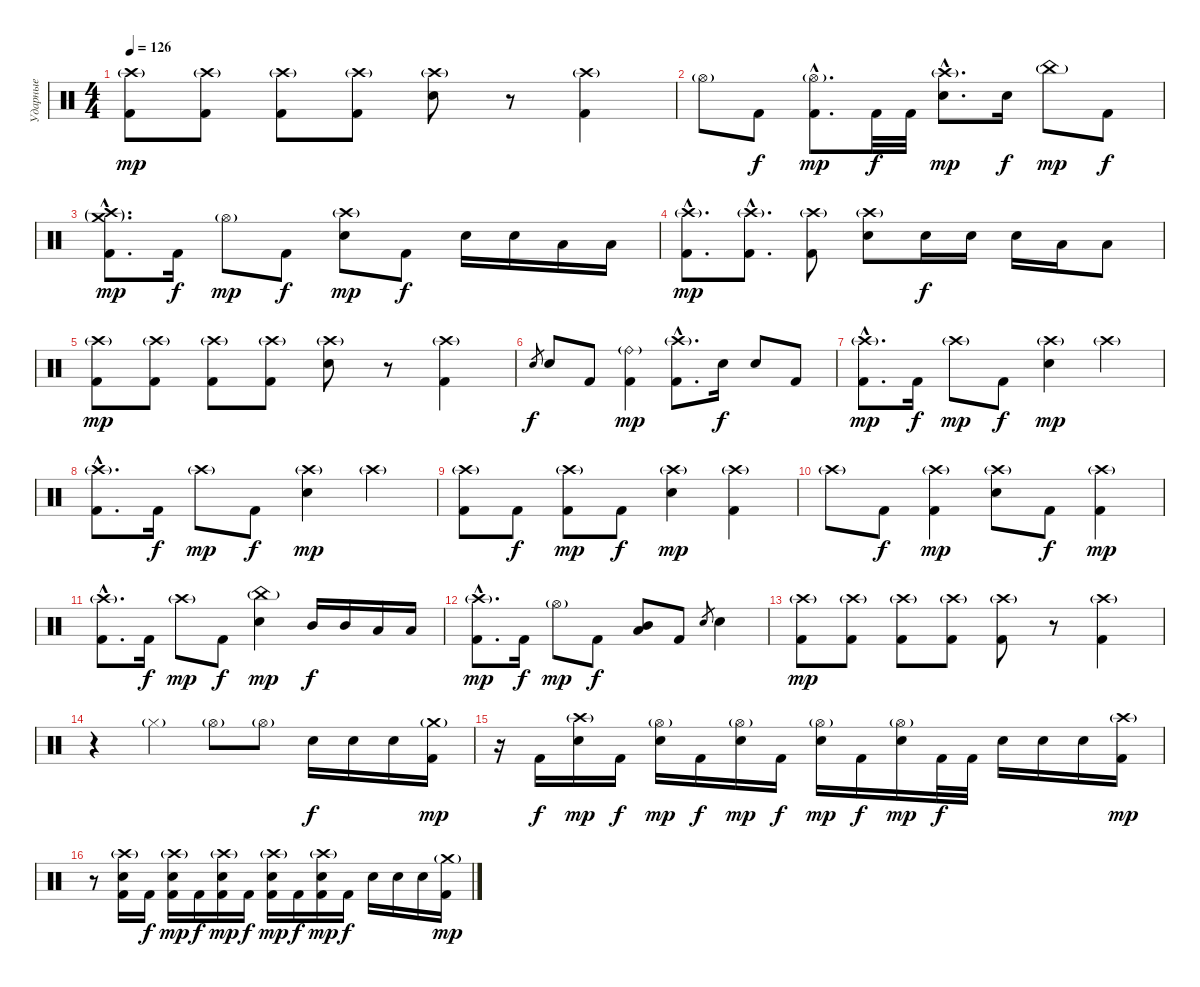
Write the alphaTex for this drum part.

\track ("Ударные" "Ударные") {instrument percussion}
\staff {score}
\articulation defaults
\ts (4 4)
\tempo 126
\clef neutral
\ks c
("Crash high (hit)"{g} "Kick (hit) 2").8{dy mp} ("Crash high (hit)"{g} "Kick (hit) 2").8 ("Crash high (hit)"{g} "Kick (hit) 2").8 ("Crash high (hit)"{g} "Kick (hit) 2").8 ("Crash high (hit)"{g} "Electric Snare (hit)").8 r.8{volume 0} ("Crash high (hit)"{g} "Kick (hit) 2").4{volume 16} |
"Hi-Hat (open)"{g}.8 "Kick (hit) 2".8{dy f} ("Hi-Hat (open)"{g hac} "Kick (hit) 2"{hac}).8{d dy mp} "Kick (hit) 2".32{dy f} "Kick (hit) 2".32 ("Crash high (hit)"{g hac} "Electric Snare (hit)"{hac}).8{d dy mp} "Electric Snare (hit)".16{dy f} "China (hit)"{g}.8{dy mp} "Kick (hit) 2".8{dy f} |
("Crash high (hit)"{g hac} "Crash medium (hit)"{g hac} "Kick (hit) 2"{hac}).8{d dy mp} "Kick (hit) 2".16{dy f} "Hi-Hat (open)"{g}.8{dy mp} "Kick (hit) 2".8{dy f} ("Crash high (hit)"{g} "Electric Snare (hit)").8{dy mp} "Kick (hit) 2".8{dy f} "Electric Snare (hit)".16 "Electric Snare (hit)".16 "Low Tom (hit)".16 "Low Tom (hit)".16 |
("Crash high (hit)"{g hac} "Kick (hit) 2"{hac}).8{d dy mp} ("Crash high (hit)"{g hac} "Kick (hit) 2"{hac}).8{d} ("Crash high (hit)"{g} "Kick (hit) 2").8 ("Crash high (hit)"{g} "Electric Snare (hit)").8 "Electric Snare (hit)".16{dy f} "Electric Snare (hit)".16 "Electric Snare (hit)".16 "Low Tom (hit)".16 "Low Tom (hit)".8 |
("Crash high (hit)"{g} "Kick (hit) 2").8{dy mp} ("Crash high (hit)"{g} "Kick (hit) 2").8 ("Crash high (hit)"{g} "Kick (hit) 2").8 ("Crash high (hit)"{g} "Kick (hit) 2").8 ("Crash high (hit)"{g} "Electric Snare (hit)").8 r.8{volume 0} ("Crash high (hit)"{g} "Kick (hit) 2").4{volume 16} |
"Electric Snare (hit)".8{gr dy f} "Electric Snare (hit)".8 "Kick (hit) 2".8 ("Ride (bell)"{g} "Kick (hit) 2").4{dy mp} ("Crash high (hit)"{g hac} "Kick (hit) 2"{hac}).8{d} "Electric Snare (hit)".16{dy f} "Electric Snare (hit)".8 "Kick (hit) 2".8 |
("Crash high (hit)"{g hac} "Kick (hit) 2"{hac}).8{d dy mp} "Kick (hit) 2".16{dy f} "Crash high (hit)"{g}.8{dy mp} "Kick (hit) 2".8{dy f} ("Crash high (hit)"{g} "Electric Snare (hit)").4{dy mp} "Crash high (hit)"{g}.4 |
("Crash high (hit)"{g hac} "Kick (hit) 2"{hac}).8{d} "Kick (hit) 2".16{dy f} "Crash high (hit)"{g}.8{dy mp} "Kick (hit) 2".8{dy f} ("Crash high (hit)"{g} "Electric Snare (hit)").4{dy mp} "Crash high (hit)"{g}.4 |
("Crash high (hit)"{g} "Kick (hit) 2").8 "Kick (hit) 2".8{dy f} ("Crash high (hit)"{g} "Kick (hit) 2").8{dy mp} "Kick (hit) 2".8{dy f} ("Crash high (hit)"{g} "Electric Snare (hit)").4{dy mp} ("Crash high (hit)"{g} "Kick (hit) 2").4 |
"Crash high (hit)"{g}.8 "Kick (hit) 2".8{dy f} ("Crash high (hit)"{g} "Kick (hit) 2").4{dy mp} ("Crash high (hit)"{g} "Electric Snare (hit)").8 "Kick (hit) 2".8{dy f} ("Crash high (hit)"{g} "Kick (hit) 2").4{dy mp} |
("Crash high (hit)"{g hac} "Kick (hit) 2"{hac}).8{d} "Kick (hit) 2".16{dy f} "Crash high (hit)"{g}.8{dy mp} "Kick (hit) 2".8{dy f} ("China (hit)"{g} "Electric Snare (hit)").4{dy mp} "Mid Tom (hit)".16{dy f} "Mid Tom (hit)".16 "Low Tom (hit)".16 "Low Tom (hit)".16 |
("Crash high (hit)"{g hac} "Kick (hit) 2"{hac}).8{d dy mp} "Kick (hit) 2".16{dy f} "Hi-Hat (open)"{g}.8{dy mp} "Kick (hit) 2".8{dy f} ("Mid Tom (hit)" "Low Tom (hit)").8 "Kick (hit) 2".8 "Electric Snare (hit)".8{gr} "Electric Snare (hit)".4 |
("Crash high (hit)"{g} "Kick (hit) 2").8{dy mp} ("Crash high (hit)"{g} "Kick (hit) 2").8 ("Crash high (hit)"{g} "Kick (hit) 2").8 ("Crash high (hit)"{g} "Kick (hit) 2").8 ("Crash high (hit)"{g} "Kick (hit) 2").8 r.8{volume 0} ("Crash high (hit)"{g} "Kick (hit) 2").4{volume 16} |
r.4 "Hi-Hat (closed)"{g}.4 "Hi-Hat (open)"{g}.8 "Hi-Hat (open)"{g}.8 "Electric Snare (hit)".16{dy f} "Electric Snare (hit)".16 "Electric Snare (hit)".16 ("Crash medium (hit)"{g} "Kick (hit) 2").16{dy mp} |
r.16 "Kick (hit) 2".16{dy f} ("Crash high (hit)"{g} "Electric Snare (hit)").16{dy mp} "Kick (hit) 2".16{dy f} ("Hi-Hat (open)"{g} "Electric Snare (hit)").16{dy mp} "Kick (hit) 2".16{dy f} ("Hi-Hat (open)"{g} "Electric Snare (hit)").16{dy mp} "Kick (hit) 2".16{dy f} ("Hi-Hat (open)"{g} "Electric Snare (hit)").16{dy mp} "Kick (hit) 2".16{dy f} ("Hi-Hat (open)"{g} "Electric Snare (hit)").16{dy mp} "Kick (hit) 2".32{dy f} "Kick (hit) 2".32 "Electric Snare (hit)".16 "Electric Snare (hit)".16 "Electric Snare (hit)".16 ("Crash high (hit)"{g} "Kick (hit) 2").16{dy mp} |
r.8 ("Crash high (hit)"{g} "Electric Snare (hit)" "Kick (hit) 2").16 "Kick (hit) 2".16{dy f} ("Crash high (hit)"{g} "Electric Snare (hit)" "Kick (hit) 2").16{dy mp} "Kick (hit) 2".16{dy f} ("Crash high (hit)"{g} "Electric Snare (hit)" "Kick (hit) 2").16{dy mp} "Kick (hit) 2".16{dy f} ("Crash high (hit)"{g} "Electric Snare (hit)" "Kick (hit) 2").16{dy mp} "Kick (hit) 2".16{dy f} ("Crash high (hit)"{g} "Electric Snare (hit)" "Kick (hit) 2").16{dy mp} "Kick (hit) 2".16{dy f} "Electric Snare (hit)".16 "Electric Snare (hit)".16 "Electric Snare (hit)".16 ("Crash medium (hit)"{g} "Kick (hit) 2").16{dy mp}
